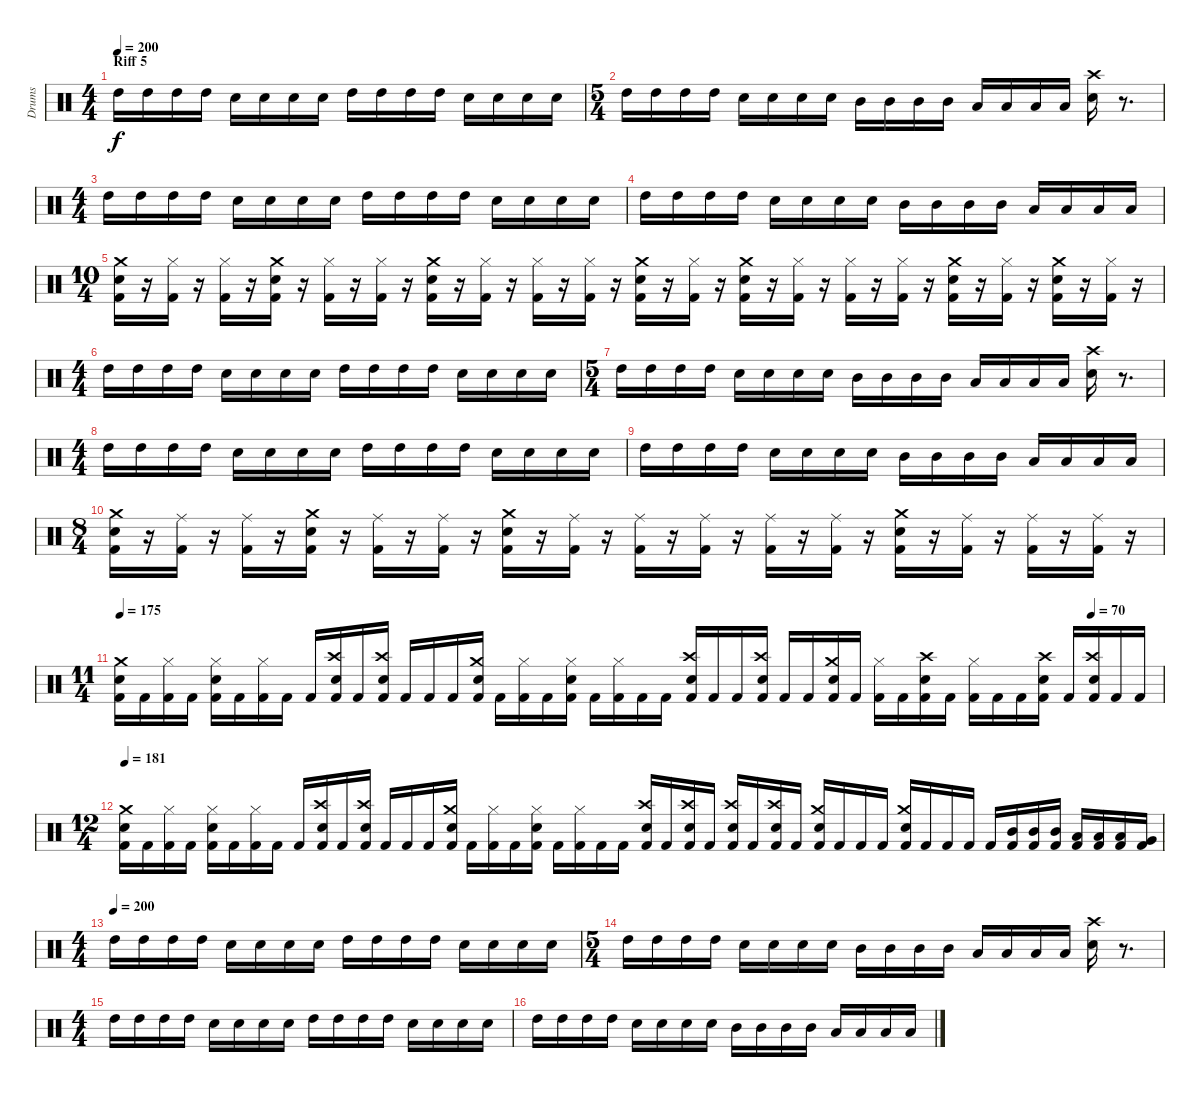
\track ("Drums" "Drums") {instrument percussion}
\staff {score}
\articulation defaults
\ts (4 4)
\section ("" "Riff 5")
\tempo 200
\clef neutral
\ks c "High Tom (hit)".16{dy f} "High Tom (hit)".16 "High Tom (hit)".16 "High Tom (hit)".16 "Electric Snare (hit)".16 "Electric Snare (hit)".16 "Electric Snare (hit)".16 "Electric Snare (hit)".16 "High Tom (hit)".16 "High Tom (hit)".16 "High Tom (hit)".16 "High Tom (hit)".16 "Electric Snare (hit)".16 "Electric Snare (hit)".16 "Electric Snare (hit)".16 "Electric Snare (hit)".16
|
\ts (5 4)
"High Tom (hit)".16 "High Tom (hit)".16 "High Tom (hit)".16 "High Tom (hit)".16 "Electric Snare (hit)".16 "Electric Snare (hit)".16 "Electric Snare (hit)".16 "Electric Snare (hit)".16 "Mid Tom (hit)".16 "Mid Tom (hit)".16 "Mid Tom (hit)".16 "Mid Tom (hit)".16 "Low Tom (hit)".16 "Low Tom (hit)".16 "Low Tom (hit)".16 "Low Tom (hit)".16 ("Crash high (hit)" "Electric Snare (hit)").16 r.8{d} |
\ts (4 4)
"High Tom (hit)".16 "High Tom (hit)".16 "High Tom (hit)".16 "High Tom (hit)".16 "Electric Snare (hit)".16 "Electric Snare (hit)".16 "Electric Snare (hit)".16 "Electric Snare (hit)".16 "High Tom (hit)".16 "High Tom (hit)".16 "High Tom (hit)".16 "High Tom (hit)".16 "Electric Snare (hit)".16 "Electric Snare (hit)".16 "Electric Snare (hit)".16 "Electric Snare (hit)".16 |
"High Tom (hit)".16 "High Tom (hit)".16 "High Tom (hit)".16 "High Tom (hit)".16 "Electric Snare (hit)".16 "Electric Snare (hit)".16 "Electric Snare (hit)".16 "Electric Snare (hit)".16 "Mid Tom (hit)".16 "Mid Tom (hit)".16 "Mid Tom (hit)".16 "Mid Tom (hit)".16 "Low Tom (hit)".16 "Low Tom (hit)".16 "Low Tom (hit)".16 "Low Tom (hit)".16 |
\ts (10 4)
("Crash medium (hit)" "Electric Snare (hit)" "Kick (hit) 2").16 r.16 ("Hi-Hat (closed)" "Kick (hit) 2").16 r.16 ("Hi-Hat (closed)" "Kick (hit) 2").16 r.16 ("Crash medium (hit)" "Electric Snare (hit)" "Kick (hit) 2").16 r.16 ("Hi-Hat (closed)" "Kick (hit) 2").16 r.16 ("Hi-Hat (closed)" "Kick (hit) 2").16 r.16 ("Crash medium (hit)" "Electric Snare (hit)" "Kick (hit) 2").16 r.16 ("Hi-Hat (closed)" "Kick (hit) 2").16 r.16 ("Hi-Hat (closed)" "Kick (hit) 2").16 r.16 ("Hi-Hat (closed)" "Kick (hit) 2").16 r.16 ("Crash medium (hit)" "Electric Snare (hit)" "Kick (hit) 2").16 r.16 ("Hi-Hat (closed)" "Kick (hit) 2").16 r.16 ("Crash medium (hit)" "Electric Snare (hit)" "Kick (hit) 2").16 r.16 ("Hi-Hat (closed)" "Kick (hit) 2").16 r.16 ("Hi-Hat (closed)" "Kick (hit) 2").16 r.16 ("Hi-Hat (closed)" "Kick (hit) 2").16 r.16 ("Crash medium (hit)" "Electric Snare (hit)" "Kick (hit) 2").16 r.16 ("Hi-Hat (closed)" "Kick (hit) 2").16 r.16 ("Crash medium (hit)" "Electric Snare (hit)" "Kick (hit) 2").16 r.16 ("Hi-Hat (closed)" "Kick (hit) 2").16 r.16 |
\ts (4 4)
"High Tom (hit)".16 "High Tom (hit)".16 "High Tom (hit)".16 "High Tom (hit)".16 "Electric Snare (hit)".16 "Electric Snare (hit)".16 "Electric Snare (hit)".16 "Electric Snare (hit)".16 "High Tom (hit)".16 "High Tom (hit)".16 "High Tom (hit)".16 "High Tom (hit)".16 "Electric Snare (hit)".16 "Electric Snare (hit)".16 "Electric Snare (hit)".16 "Electric Snare (hit)".16 |
\ts (5 4)
"High Tom (hit)".16 "High Tom (hit)".16 "High Tom (hit)".16 "High Tom (hit)".16 "Electric Snare (hit)".16 "Electric Snare (hit)".16 "Electric Snare (hit)".16 "Electric Snare (hit)".16 "Mid Tom (hit)".16 "Mid Tom (hit)".16 "Mid Tom (hit)".16 "Mid Tom (hit)".16 "Low Tom (hit)".16 "Low Tom (hit)".16 "Low Tom (hit)".16 "Low Tom (hit)".16 ("Crash high (hit)" "Electric Snare (hit)").16 r.8{d} |
\ts (4 4)
"High Tom (hit)".16 "High Tom (hit)".16 "High Tom (hit)".16 "High Tom (hit)".16 "Electric Snare (hit)".16 "Electric Snare (hit)".16 "Electric Snare (hit)".16 "Electric Snare (hit)".16 "High Tom (hit)".16 "High Tom (hit)".16 "High Tom (hit)".16 "High Tom (hit)".16 "Electric Snare (hit)".16 "Electric Snare (hit)".16 "Electric Snare (hit)".16 "Electric Snare (hit)".16 |
"High Tom (hit)".16 "High Tom (hit)".16 "High Tom (hit)".16 "High Tom (hit)".16 "Electric Snare (hit)".16 "Electric Snare (hit)".16 "Electric Snare (hit)".16 "Electric Snare (hit)".16 "Mid Tom (hit)".16 "Mid Tom (hit)".16 "Mid Tom (hit)".16 "Mid Tom (hit)".16 "Low Tom (hit)".16 "Low Tom (hit)".16 "Low Tom (hit)".16 "Low Tom (hit)".16 |
\ts (8 4)
("Crash medium (hit)" "Electric Snare (hit)" "Kick (hit) 2").16 r.16 ("Ride (middle)" "Kick (hit) 2").16 r.16 ("Ride (middle)" "Kick (hit) 2").16 r.16 ("Crash medium (hit)" "Electric Snare (hit)" "Kick (hit) 2").16 r.16 ("Ride (middle)" "Kick (hit) 2").16 r.16 ("Ride (middle)" "Kick (hit) 2").16 r.16 ("Crash medium (hit)" "Electric Snare (hit)" "Kick (hit) 2").16 r.16 ("Ride (middle)" "Kick (hit) 2").16 r.16 ("Ride (middle)" "Kick (hit) 2").16 r.16 ("Ride (middle)" "Kick (hit) 2").16 r.16 ("Ride (middle)" "Kick (hit) 2").16 r.16 ("Ride (middle)" "Kick (hit) 2").16 r.16 ("Crash medium (hit)" "Electric Snare (hit)" "Kick (hit) 2").16 r.16 ("Ride (middle)" "Kick (hit) 2").16 r.16 ("Ride (middle)" "Kick (hit) 2").16 r.16 ("Ride (middle)" "Kick (hit) 2").16 r.16 |
\ts (11 4)
\tempo (70 0.9318181818181818)
\tempo 175
("Crash medium (hit)" "Electric Snare (hit)" "Kick (hit) 2").16 "Kick (hit) 2".16 ("Hi-Hat (closed)" "Kick (hit) 2").16 "Kick (hit) 2".16 ("Hi-Hat (closed)" "Electric Snare (hit)" "Kick (hit) 2").16 "Kick (hit) 2".16 ("Hi-Hat (closed)" "Kick (hit) 2").16 "Kick (hit) 2".16 "Kick (hit) 2".16 ("Crash high (hit)" "Electric Snare (hit)" "Kick (hit) 2").16 "Kick (hit) 2".16 ("Crash high (hit)" "Electric Snare (hit)" "Kick (hit) 2").16 "Kick (hit) 2".16 "Kick (hit) 2".16 "Kick (hit) 2".16 ("Crash medium (hit)" "Electric Snare (hit)" "Kick (hit) 2").16 "Kick (hit) 2".16 ("Hi-Hat (closed)" "Kick (hit) 2").16 "Kick (hit) 2".16 ("Hi-Hat (closed)" "Electric Snare (hit)" "Kick (hit) 2").16 "Kick (hit) 2".16 ("Hi-Hat (closed)" "Kick (hit) 2").16 "Kick (hit) 2".16 "Kick (hit) 2".16 ("Crash high (hit)" "Electric Snare (hit)" "Kick (hit) 2").16 "Kick (hit) 2".16 "Kick (hit) 2".16 ("Crash high (hit)" "Electric Snare (hit)" "Kick (hit) 2").16 "Kick (hit) 2".16 "Kick (hit) 2".16 ("Crash medium (hit)" "Electric Snare (hit)" "Kick (hit) 2").16 "Kick (hit) 2".16 ("Hi-Hat (closed)" "Kick (hit) 2").16 "Kick (hit) 2".16 ("Crash high (hit)" "Electric Snare (hit)" "Kick (hit) 2").16 "Kick (hit) 2".16 ("Hi-Hat (closed)" "Kick (hit) 2").16 "Kick (hit) 2".16 "Kick (hit) 2".16 ("Crash high (hit)" "Electric Snare (hit)" "Kick (hit) 2").16 "Kick (hit) 2".16 ("Crash high (hit)" "Electric Snare (hit)" "Kick (hit) 2").16 "Kick (hit) 2".16 "Kick (hit) 2".16 |
\ts (12 4)
\tempo 200
\tempo 181
("Crash medium (hit)" "Electric Snare (hit)" "Kick (hit) 2").16 "Kick (hit) 2".16 ("Hi-Hat (closed)" "Kick (hit) 2").16 "Kick (hit) 2".16 ("Hi-Hat (closed)" "Electric Snare (hit)" "Kick (hit) 2").16 "Kick (hit) 2".16 ("Hi-Hat (closed)" "Kick (hit) 2").16 "Kick (hit) 2".16 "Kick (hit) 2".16 ("Crash high (hit)" "Electric Snare (hit)" "Kick (hit) 2").16 "Kick (hit) 2".16 ("Crash high (hit)" "Electric Snare (hit)" "Kick (hit) 2").16 "Kick (hit) 2".16 "Kick (hit) 2".16 "Kick (hit) 2".16 ("Crash medium (hit)" "Electric Snare (hit)" "Kick (hit) 2").16 "Kick (hit) 2".16 ("Hi-Hat (closed)" "Kick (hit) 2").16 "Kick (hit) 2".16 ("Hi-Hat (closed)" "Electric Snare (hit)" "Kick (hit) 2").16 "Kick (hit) 2".16 ("Hi-Hat (closed)" "Kick (hit) 2").16 "Kick (hit) 2".16 "Kick (hit) 2".16 ("Crash high (hit)" "Electric Snare (hit)" "Kick (hit) 2").16 "Kick (hit) 2".16 ("Crash high (hit)" "Electric Snare (hit)" "Kick (hit) 2").16 "Kick (hit) 2".16 ("Crash high (hit)" "Electric Snare (hit)" "Kick (hit) 2").16 "Kick (hit) 2".16 ("Crash high (hit)" "Electric Snare (hit)" "Kick (hit) 2").16 "Kick (hit) 2".16 ("Crash medium (hit)" "Electric Snare (hit)" "Kick (hit) 2").16 "Kick (hit) 2".16 "Kick (hit) 2".16 "Kick (hit) 2".16 ("Crash medium (hit)" "Electric Snare (hit)" "Kick (hit) 2").16 "Kick (hit) 2".16 "Kick (hit) 2".16 "Kick (hit) 2".16 "Kick (hit) 2".16 ("Mid Tom (hit)" "Kick (hit) 2").16 ("Mid Tom (hit)" "Kick (hit) 2").16 ("Mid Tom (hit)" "Kick (hit) 2").16 ("Low Tom (hit)" "Kick (hit) 2").16 ("Low Tom (hit)" "Kick (hit) 2").16 ("Low Tom (hit)" "Kick (hit) 2").16 ("Very Low Tom (hit)" "Kick (hit) 2").16 |
\ts (4 4)
\tempo (200)
"High Tom (hit)".16 "High Tom (hit)".16 "High Tom (hit)".16 "High Tom (hit)".16 "Electric Snare (hit)".16 "Electric Snare (hit)".16 "Electric Snare (hit)".16 "Electric Snare (hit)".16 "High Tom (hit)".16 "High Tom (hit)".16 "High Tom (hit)".16 "High Tom (hit)".16 "Electric Snare (hit)".16 "Electric Snare (hit)".16 "Electric Snare (hit)".16 "Electric Snare (hit)".16 |
\ts (5 4)
"High Tom (hit)".16 "High Tom (hit)".16 "High Tom (hit)".16 "High Tom (hit)".16 "Electric Snare (hit)".16 "Electric Snare (hit)".16 "Electric Snare (hit)".16 "Electric Snare (hit)".16 "Mid Tom (hit)".16 "Mid Tom (hit)".16 "Mid Tom (hit)".16 "Mid Tom (hit)".16 "Low Tom (hit)".16 "Low Tom (hit)".16 "Low Tom (hit)".16 "Low Tom (hit)".16 ("Crash high (hit)" "Electric Snare (hit)").16 r.8{d} |
\ts (4 4)
"High Tom (hit)".16 "High Tom (hit)".16 "High Tom (hit)".16 "High Tom (hit)".16 "Electric Snare (hit)".16 "Electric Snare (hit)".16 "Electric Snare (hit)".16 "Electric Snare (hit)".16 "High Tom (hit)".16 "High Tom (hit)".16 "High Tom (hit)".16 "High Tom (hit)".16 "Electric Snare (hit)".16 "Electric Snare (hit)".16 "Electric Snare (hit)".16 "Electric Snare (hit)".16 |
"High Tom (hit)".16 "High Tom (hit)".16 "High Tom (hit)".16 "High Tom (hit)".16 "Electric Snare (hit)".16 "Electric Snare (hit)".16 "Electric Snare (hit)".16 "Electric Snare (hit)".16 "Mid Tom (hit)".16 "Mid Tom (hit)".16 "Mid Tom (hit)".16 "Mid Tom (hit)".16 "Low Tom (hit)".16 "Low Tom (hit)".16 "Low Tom (hit)".16 "Low Tom (hit)".16
